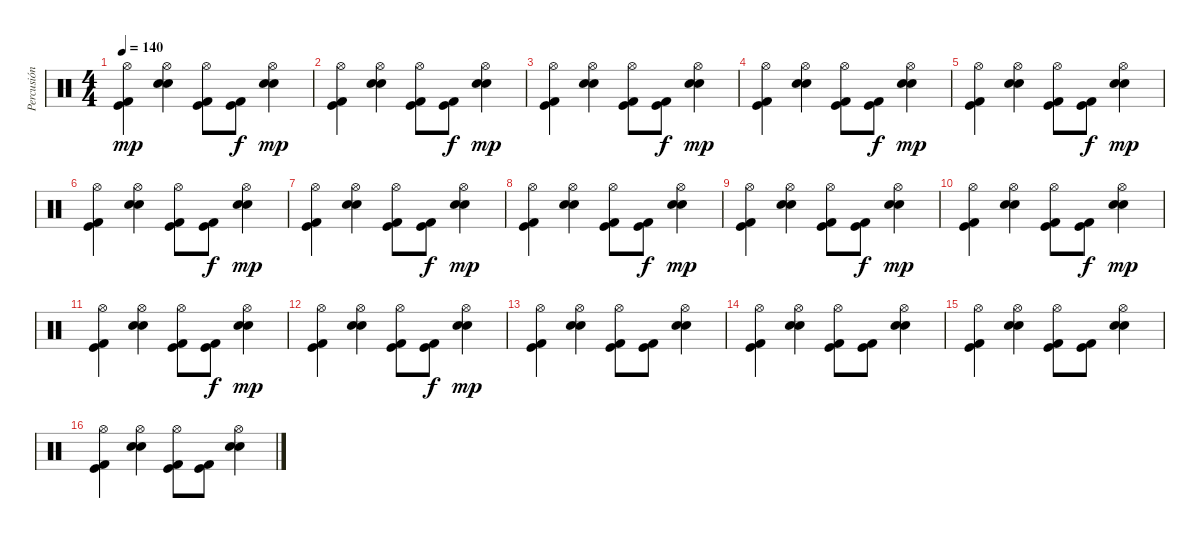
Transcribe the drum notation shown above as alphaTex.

\track ("Percusión" "Percusión") {instrument percussion}
\staff {score}
\articulation defaults
\ts (4 4)
\tempo 140
\clef neutral
\ks c
("Kick (hit)" "Kick (hit) 2" "Hi-Hat (open)").4{dy mp} ("Electric Snare (hit)" "Snare (hit) 2" "Hi-Hat (open)").4 ("Kick (hit)" "Kick (hit) 2" "Hi-Hat (open)").8 ("Kick (hit)" "Kick (hit) 2").8{dy f} ("Snare (hit) 2" "Electric Snare (hit)" "Hi-Hat (open)").4{dy mp} |
("Kick (hit)" "Kick (hit) 2" "Hi-Hat (open)").4 ("Electric Snare (hit)" "Snare (hit) 2" "Hi-Hat (open)").4 ("Kick (hit)" "Kick (hit) 2" "Hi-Hat (open)").8 ("Kick (hit)" "Kick (hit) 2").8{dy f} ("Snare (hit) 2" "Electric Snare (hit)" "Hi-Hat (open)").4{dy mp} |
("Kick (hit)" "Kick (hit) 2" "Hi-Hat (open)").4 ("Electric Snare (hit)" "Snare (hit) 2" "Hi-Hat (open)").4 ("Kick (hit)" "Kick (hit) 2" "Hi-Hat (open)").8 ("Kick (hit)" "Kick (hit) 2").8{dy f} ("Snare (hit) 2" "Electric Snare (hit)" "Hi-Hat (open)").4{dy mp} |
("Kick (hit)" "Kick (hit) 2" "Hi-Hat (open)").4 ("Electric Snare (hit)" "Snare (hit) 2" "Hi-Hat (open)").4 ("Kick (hit)" "Kick (hit) 2" "Hi-Hat (open)").8 ("Kick (hit)" "Kick (hit) 2").8{dy f} ("Snare (hit) 2" "Electric Snare (hit)" "Hi-Hat (open)").4{dy mp} |
("Kick (hit)" "Kick (hit) 2" "Hi-Hat (open)").4 ("Electric Snare (hit)" "Snare (hit) 2" "Hi-Hat (open)").4 ("Kick (hit)" "Kick (hit) 2" "Hi-Hat (open)").8 ("Kick (hit)" "Kick (hit) 2").8{dy f} ("Snare (hit) 2" "Electric Snare (hit)" "Hi-Hat (open)").4{dy mp} |
("Kick (hit)" "Kick (hit) 2" "Hi-Hat (open)").4 ("Electric Snare (hit)" "Snare (hit) 2" "Hi-Hat (open)").4 ("Kick (hit)" "Kick (hit) 2" "Hi-Hat (open)").8 ("Kick (hit)" "Kick (hit) 2").8{dy f} ("Snare (hit) 2" "Electric Snare (hit)" "Hi-Hat (open)").4{dy mp} |
("Kick (hit)" "Kick (hit) 2" "Hi-Hat (open)").4 ("Electric Snare (hit)" "Snare (hit) 2" "Hi-Hat (open)").4 ("Kick (hit)" "Kick (hit) 2" "Hi-Hat (open)").8 ("Kick (hit)" "Kick (hit) 2").8{dy f} ("Snare (hit) 2" "Electric Snare (hit)" "Hi-Hat (open)").4{dy mp} |
("Kick (hit)" "Kick (hit) 2" "Hi-Hat (open)").4 ("Electric Snare (hit)" "Snare (hit) 2" "Hi-Hat (open)").4 ("Kick (hit)" "Kick (hit) 2" "Hi-Hat (open)").8 ("Kick (hit)" "Kick (hit) 2").8{dy f} ("Snare (hit) 2" "Electric Snare (hit)" "Hi-Hat (open)").4{dy mp} |
("Kick (hit)" "Kick (hit) 2" "Hi-Hat (open)").4 ("Electric Snare (hit)" "Snare (hit) 2" "Hi-Hat (open)").4 ("Kick (hit)" "Kick (hit) 2" "Hi-Hat (open)").8 ("Kick (hit)" "Kick (hit) 2").8{dy f} ("Snare (hit) 2" "Electric Snare (hit)" "Hi-Hat (open)").4{dy mp} |
("Kick (hit)" "Kick (hit) 2" "Hi-Hat (open)").4 ("Electric Snare (hit)" "Snare (hit) 2" "Hi-Hat (open)").4 ("Kick (hit)" "Kick (hit) 2" "Hi-Hat (open)").8 ("Kick (hit)" "Kick (hit) 2").8{dy f} ("Snare (hit) 2" "Electric Snare (hit)" "Hi-Hat (open)").4{dy mp} |
("Kick (hit)" "Kick (hit) 2" "Hi-Hat (open)").4 ("Electric Snare (hit)" "Snare (hit) 2" "Hi-Hat (open)").4 ("Kick (hit)" "Kick (hit) 2" "Hi-Hat (open)").8 ("Kick (hit)" "Kick (hit) 2").8{dy f} ("Snare (hit) 2" "Electric Snare (hit)" "Hi-Hat (open)").4{dy mp} |
("Kick (hit)" "Kick (hit) 2" "Hi-Hat (open)").4 ("Electric Snare (hit)" "Snare (hit) 2" "Hi-Hat (open)").4 ("Kick (hit)" "Kick (hit) 2" "Hi-Hat (open)").8 ("Kick (hit)" "Kick (hit) 2").8{dy f} ("Snare (hit) 2" "Electric Snare (hit)" "Hi-Hat (open)").4{dy mp} |
("Kick (hit)" "Kick (hit) 2" "Hi-Hat (open)").4 ("Electric Snare (hit)" "Snare (hit) 2" "Hi-Hat (open)").4 ("Kick (hit)" "Kick (hit) 2" "Hi-Hat (open)").8 ("Kick (hit)" "Kick (hit) 2").8 ("Snare (hit) 2" "Electric Snare (hit)" "Hi-Hat (open)").4 |
("Kick (hit)" "Kick (hit) 2" "Hi-Hat (open)").4 ("Electric Snare (hit)" "Snare (hit) 2" "Hi-Hat (open)").4 ("Kick (hit)" "Kick (hit) 2" "Hi-Hat (open)").8 ("Kick (hit)" "Kick (hit) 2").8 ("Snare (hit) 2" "Electric Snare (hit)" "Hi-Hat (open)").4 |
("Kick (hit)" "Kick (hit) 2" "Hi-Hat (open)").4 ("Electric Snare (hit)" "Snare (hit) 2" "Hi-Hat (open)").4 ("Kick (hit)" "Kick (hit) 2" "Hi-Hat (open)").8 ("Kick (hit)" "Kick (hit) 2").8 ("Snare (hit) 2" "Electric Snare (hit)" "Hi-Hat (open)").4 |
("Kick (hit)" "Kick (hit) 2" "Hi-Hat (open)").4 ("Electric Snare (hit)" "Snare (hit) 2" "Hi-Hat (open)").4 ("Kick (hit)" "Kick (hit) 2" "Hi-Hat (open)").8 ("Kick (hit)" "Kick (hit) 2").8 ("Snare (hit) 2" "Electric Snare (hit)" "Hi-Hat (open)").4
